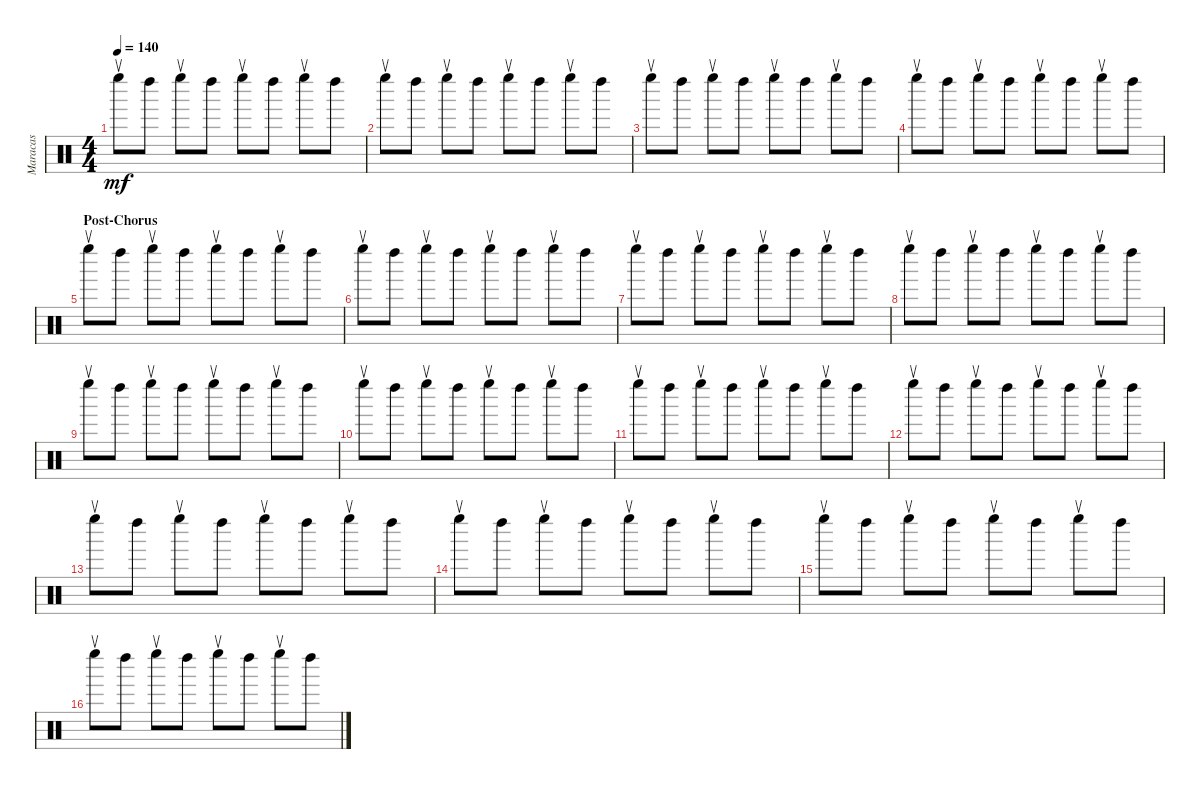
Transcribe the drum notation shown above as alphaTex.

\track ("Maracas" "Maracas") {instrument percussion}
\staff {score}
\articulation defaults
\ts (4 4)
\tempo 140
\clef neutral
\ks c "Left Maraca (return)".8{dy mf} "Left Maraca (hit)".8 "Left Maraca (return)".8 "Left Maraca (hit)".8 "Left Maraca (return)".8 "Left Maraca (hit)".8 "Left Maraca (return)".8 "Left Maraca (hit)".8
|
"Left Maraca (return)".8 "Left Maraca (hit)".8 "Left Maraca (return)".8 "Left Maraca (hit)".8 "Left Maraca (return)".8 "Left Maraca (hit)".8 "Left Maraca (return)".8 "Left Maraca (hit)".8 |
"Left Maraca (return)".8 "Left Maraca (hit)".8 "Left Maraca (return)".8 "Left Maraca (hit)".8 "Left Maraca (return)".8 "Left Maraca (hit)".8 "Left Maraca (return)".8 "Left Maraca (hit)".8 |
"Left Maraca (return)".8 "Left Maraca (hit)".8 "Left Maraca (return)".8 "Left Maraca (hit)".8 "Left Maraca (return)".8 "Left Maraca (hit)".8 "Left Maraca (return)".8 "Left Maraca (hit)".8 |
\section ("" "Post-Chorus")
"Left Maraca (return)".8 "Left Maraca (hit)".8 "Left Maraca (return)".8 "Left Maraca (hit)".8 "Left Maraca (return)".8 "Left Maraca (hit)".8 "Left Maraca (return)".8 "Left Maraca (hit)".8 |
"Left Maraca (return)".8 "Left Maraca (hit)".8 "Left Maraca (return)".8 "Left Maraca (hit)".8 "Left Maraca (return)".8 "Left Maraca (hit)".8 "Left Maraca (return)".8 "Left Maraca (hit)".8 |
"Left Maraca (return)".8 "Left Maraca (hit)".8 "Left Maraca (return)".8 "Left Maraca (hit)".8 "Left Maraca (return)".8 "Left Maraca (hit)".8 "Left Maraca (return)".8 "Left Maraca (hit)".8 |
"Left Maraca (return)".8 "Left Maraca (hit)".8 "Left Maraca (return)".8 "Left Maraca (hit)".8 "Left Maraca (return)".8 "Left Maraca (hit)".8 "Left Maraca (return)".8 "Left Maraca (hit)".8 |
"Left Maraca (return)".8 "Left Maraca (hit)".8 "Left Maraca (return)".8 "Left Maraca (hit)".8 "Left Maraca (return)".8 "Left Maraca (hit)".8 "Left Maraca (return)".8 "Left Maraca (hit)".8 |
"Left Maraca (return)".8 "Left Maraca (hit)".8 "Left Maraca (return)".8 "Left Maraca (hit)".8 "Left Maraca (return)".8 "Left Maraca (hit)".8 "Left Maraca (return)".8 "Left Maraca (hit)".8 |
"Left Maraca (return)".8 "Left Maraca (hit)".8 "Left Maraca (return)".8 "Left Maraca (hit)".8 "Left Maraca (return)".8 "Left Maraca (hit)".8 "Left Maraca (return)".8 "Left Maraca (hit)".8 |
"Left Maraca (return)".8 "Left Maraca (hit)".8 "Left Maraca (return)".8 "Left Maraca (hit)".8 "Left Maraca (return)".8 "Left Maraca (hit)".8 "Left Maraca (return)".8 "Left Maraca (hit)".8 |
"Left Maraca (return)".8 "Left Maraca (hit)".8 "Left Maraca (return)".8 "Left Maraca (hit)".8 "Left Maraca (return)".8 "Left Maraca (hit)".8 "Left Maraca (return)".8 "Left Maraca (hit)".8 |
"Left Maraca (return)".8 "Left Maraca (hit)".8 "Left Maraca (return)".8 "Left Maraca (hit)".8 "Left Maraca (return)".8 "Left Maraca (hit)".8 "Left Maraca (return)".8 "Left Maraca (hit)".8 |
"Left Maraca (return)".8 "Left Maraca (hit)".8 "Left Maraca (return)".8 "Left Maraca (hit)".8 "Left Maraca (return)".8 "Left Maraca (hit)".8 "Left Maraca (return)".8 "Left Maraca (hit)".8 |
"Left Maraca (return)".8 "Left Maraca (hit)".8 "Left Maraca (return)".8 "Left Maraca (hit)".8 "Left Maraca (return)".8 "Left Maraca (hit)".8 "Left Maraca (return)".8 "Left Maraca (hit)".8
